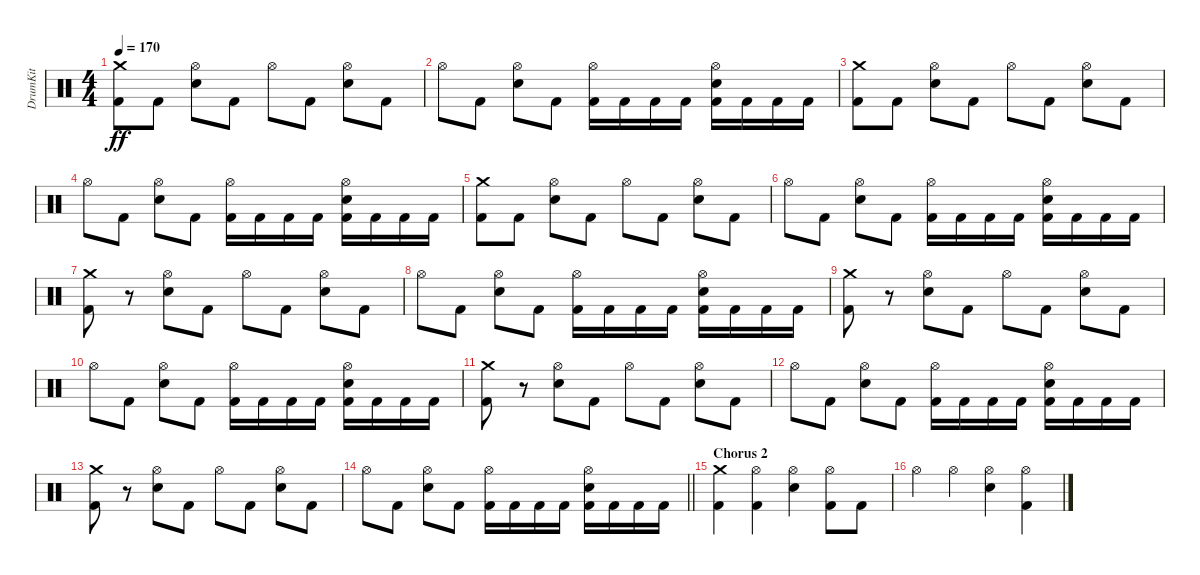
\track ("DrumKit" "DrumKit") {instrument percussion}
\staff {score}
\articulation defaults
\ts (4 4)
\tempo 170
\clef neutral
\ks c
("Kick (hit) 2" "Crash medium (hit)").8{dy ff} "Kick (hit) 2".8 ("Snare (hit) 2" "Hi-Hat (open)").8 "Kick (hit) 2".8 "Hi-Hat (open)".8 "Kick (hit) 2".8 ("Snare (hit) 2" "Hi-Hat (open)").8 "Kick (hit) 2".8 |
"Hi-Hat (open)".8 "Kick (hit) 2".8 ("Snare (hit) 2" "Hi-Hat (open)").8 "Kick (hit) 2".8 ("Kick (hit) 2" "Hi-Hat (open)").16 "Kick (hit) 2".16 "Kick (hit) 2".16 "Kick (hit) 2".16 ("Kick (hit) 2" "Snare (hit) 2" "Hi-Hat (open)").16 "Kick (hit) 2".16 "Kick (hit) 2".16 "Kick (hit) 2".16 |
("Kick (hit) 2" "Crash medium (hit)").8 "Kick (hit) 2".8 ("Snare (hit) 2" "Hi-Hat (open)").8 "Kick (hit) 2".8 "Hi-Hat (open)".8 "Kick (hit) 2".8 ("Snare (hit) 2" "Hi-Hat (open)").8 "Kick (hit) 2".8 |
"Hi-Hat (open)".8 "Kick (hit) 2".8 ("Snare (hit) 2" "Hi-Hat (open)").8 "Kick (hit) 2".8 ("Kick (hit) 2" "Hi-Hat (open)").16 "Kick (hit) 2".16 "Kick (hit) 2".16 "Kick (hit) 2".16 ("Kick (hit) 2" "Snare (hit) 2" "Hi-Hat (open)").16 "Kick (hit) 2".16 "Kick (hit) 2".16 "Kick (hit) 2".16 |
("Kick (hit) 2" "Crash medium (hit)").8 "Kick (hit) 2".8 ("Snare (hit) 2" "Hi-Hat (open)").8 "Kick (hit) 2".8 "Hi-Hat (open)".8 "Kick (hit) 2".8 ("Snare (hit) 2" "Hi-Hat (open)").8 "Kick (hit) 2".8 |
"Hi-Hat (open)".8 "Kick (hit) 2".8 ("Snare (hit) 2" "Hi-Hat (open)").8 "Kick (hit) 2".8 ("Kick (hit) 2" "Hi-Hat (open)").16 "Kick (hit) 2".16 "Kick (hit) 2".16 "Kick (hit) 2".16 ("Kick (hit) 2" "Snare (hit) 2" "Hi-Hat (open)").16 "Kick (hit) 2".16 "Kick (hit) 2".16 "Kick (hit) 2".16 |
("Kick (hit) 2" "Crash medium (hit)").8 r.8 ("Snare (hit) 2" "Hi-Hat (open)").8 "Kick (hit) 2".8 "Hi-Hat (open)".8 "Kick (hit) 2".8 ("Snare (hit) 2" "Hi-Hat (open)").8 "Kick (hit) 2".8 |
"Hi-Hat (open)".8 "Kick (hit) 2".8 ("Snare (hit) 2" "Hi-Hat (open)").8 "Kick (hit) 2".8 ("Kick (hit) 2" "Hi-Hat (open)").16 "Kick (hit) 2".16 "Kick (hit) 2".16 "Kick (hit) 2".16 ("Kick (hit) 2" "Snare (hit) 2" "Hi-Hat (open)").16 "Kick (hit) 2".16 "Kick (hit) 2".16 "Kick (hit) 2".16 |
("Kick (hit) 2" "Crash medium (hit)").8 r.8 ("Snare (hit) 2" "Hi-Hat (open)").8 "Kick (hit) 2".8 "Hi-Hat (open)".8 "Kick (hit) 2".8 ("Snare (hit) 2" "Hi-Hat (open)").8 "Kick (hit) 2".8 |
"Hi-Hat (open)".8 "Kick (hit) 2".8 ("Snare (hit) 2" "Hi-Hat (open)").8 "Kick (hit) 2".8 ("Kick (hit) 2" "Hi-Hat (open)").16 "Kick (hit) 2".16 "Kick (hit) 2".16 "Kick (hit) 2".16 ("Kick (hit) 2" "Snare (hit) 2" "Hi-Hat (open)").16 "Kick (hit) 2".16 "Kick (hit) 2".16 "Kick (hit) 2".16 |
("Kick (hit) 2" "Crash medium (hit)").8 r.8 ("Snare (hit) 2" "Hi-Hat (open)").8 "Kick (hit) 2".8 "Hi-Hat (open)".8 "Kick (hit) 2".8 ("Snare (hit) 2" "Hi-Hat (open)").8 "Kick (hit) 2".8 |
"Hi-Hat (open)".8 "Kick (hit) 2".8 ("Snare (hit) 2" "Hi-Hat (open)").8 "Kick (hit) 2".8 ("Kick (hit) 2" "Hi-Hat (open)").16 "Kick (hit) 2".16 "Kick (hit) 2".16 "Kick (hit) 2".16 ("Kick (hit) 2" "Snare (hit) 2" "Hi-Hat (open)").16 "Kick (hit) 2".16 "Kick (hit) 2".16 "Kick (hit) 2".16 |
("Kick (hit) 2" "Crash medium (hit)").8 r.8 ("Snare (hit) 2" "Hi-Hat (open)").8 "Kick (hit) 2".8 "Hi-Hat (open)".8 "Kick (hit) 2".8 ("Snare (hit) 2" "Hi-Hat (open)").8 "Kick (hit) 2".8 |
\barLineRight lightlight "Hi-Hat (open)".8 "Kick (hit) 2".8
("Snare (hit) 2" "Hi-Hat (open)").8 "Kick (hit) 2".8 ("Kick (hit) 2" "Hi-Hat (open)").16 "Kick (hit) 2".16 "Kick (hit) 2".16 "Kick (hit) 2".16 ("Kick (hit) 2" "Snare (hit) 2" "Hi-Hat (open)").16 "Kick (hit) 2".16 "Kick (hit) 2".16 "Kick (hit) 2".16 |
\section ("" "Chorus 2")
("Kick (hit) 2" "Crash medium (hit)").4 ("Kick (hit) 2" "Hi-Hat (open)").4 ("Snare (hit) 2" "Hi-Hat (open)").4 ("Kick (hit) 2" "Hi-Hat (open)").8 "Kick (hit) 2".8 |
"Hi-Hat (open)".4 "Hi-Hat (open)".4 ("Snare (hit) 2" "Hi-Hat (open)").4 ("Kick (hit) 2" "Hi-Hat (open)").4
